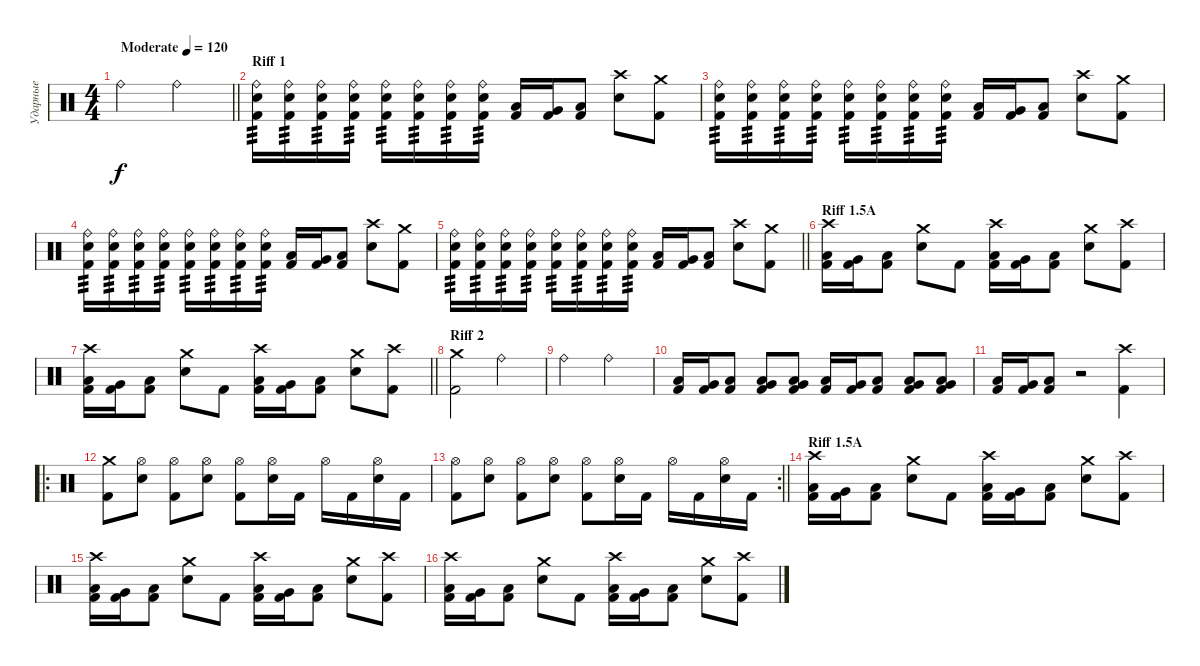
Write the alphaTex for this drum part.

\track ("Ударные" "Ударные") {instrument percussion}
\staff {score}
\articulation defaults
\ts (4 4)
\tempo (120 "Moderate")
\clef neutral
\barLineRight lightlight
\ks c "Ride (bell)".2{dy f} "Ride (bell)".2
|
\section ("" "Riff 1")
("Ride (bell)" "Electric Snare (hit)" "Kick (hit) 2").16{tp 3} ("Ride (bell)" "Electric Snare (hit)" "Kick (hit) 2").16{tp 3} ("Ride (bell)" "Electric Snare (hit)" "Kick (hit) 2").16{tp 3} ("Ride (bell)" "Electric Snare (hit)" "Kick (hit) 2").16{tp 3} ("Ride (bell)" "Electric Snare (hit)" "Kick (hit) 2").16{tp 3} ("Ride (bell)" "Electric Snare (hit)" "Kick (hit) 2").16{tp 3} ("Ride (bell)" "Electric Snare (hit)" "Kick (hit) 2").16{tp 3} ("Ride (bell)" "Electric Snare (hit)" "Kick (hit) 2").16{tp 3} ("Low Tom (hit)" "Kick (hit) 2").16 ("Very Low Tom (hit)" "Kick (hit) 2").16 ("Low Tom (hit)" "Kick (hit) 2").8 ("Crash high (hit)" "Electric Snare (hit)").8 ("Crash medium (hit)" "Kick (hit) 2").8 |
("Ride (bell)" "Electric Snare (hit)" "Kick (hit) 2").16{tp 3} ("Ride (bell)" "Electric Snare (hit)" "Kick (hit) 2").16{tp 3} ("Ride (bell)" "Electric Snare (hit)" "Kick (hit) 2").16{tp 3} ("Ride (bell)" "Electric Snare (hit)" "Kick (hit) 2").16{tp 3} ("Ride (bell)" "Electric Snare (hit)" "Kick (hit) 2").16{tp 3} ("Ride (bell)" "Electric Snare (hit)" "Kick (hit) 2").16{tp 3} ("Ride (bell)" "Electric Snare (hit)" "Kick (hit) 2").16{tp 3} ("Ride (bell)" "Electric Snare (hit)" "Kick (hit) 2").16{tp 3} ("Low Tom (hit)" "Kick (hit) 2").16 ("Very Low Tom (hit)" "Kick (hit) 2").16 ("Low Tom (hit)" "Kick (hit) 2").8 ("Crash high (hit)" "Electric Snare (hit)").8 ("Crash medium (hit)" "Kick (hit) 2").8 |
("Ride (bell)" "Electric Snare (hit)" "Kick (hit) 2").16{tp 3} ("Ride (bell)" "Electric Snare (hit)" "Kick (hit) 2").16{tp 3} ("Ride (bell)" "Electric Snare (hit)" "Kick (hit) 2").16{tp 3} ("Ride (bell)" "Electric Snare (hit)" "Kick (hit) 2").16{tp 3} ("Ride (bell)" "Electric Snare (hit)" "Kick (hit) 2").16{tp 3} ("Ride (bell)" "Electric Snare (hit)" "Kick (hit) 2").16{tp 3} ("Ride (bell)" "Electric Snare (hit)" "Kick (hit) 2").16{tp 3} ("Ride (bell)" "Electric Snare (hit)" "Kick (hit) 2").16{tp 3} ("Low Tom (hit)" "Kick (hit) 2").16 ("Very Low Tom (hit)" "Kick (hit) 2").16 ("Low Tom (hit)" "Kick (hit) 2").8 ("Crash high (hit)" "Electric Snare (hit)").8 ("Crash medium (hit)" "Kick (hit) 2").8 |
\barLineRight lightlight
("Ride (bell)" "Electric Snare (hit)" "Kick (hit) 2").16{tp 3} ("Ride (bell)" "Electric Snare (hit)" "Kick (hit) 2").16{tp 3} ("Ride (bell)" "Electric Snare (hit)" "Kick (hit) 2").16{tp 3} ("Ride (bell)" "Electric Snare (hit)" "Kick (hit) 2").16{tp 3} ("Ride (bell)" "Electric Snare (hit)" "Kick (hit) 2").16{tp 3} ("Ride (bell)" "Electric Snare (hit)" "Kick (hit) 2").16{tp 3} ("Ride (bell)" "Electric Snare (hit)" "Kick (hit) 2").16{tp 3} ("Ride (bell)" "Electric Snare (hit)" "Kick (hit) 2").16{tp 3} ("Low Tom (hit)" "Kick (hit) 2").16 ("Very Low Tom (hit)" "Kick (hit) 2").16 ("Low Tom (hit)" "Kick (hit) 2").8 ("Crash high (hit)" "Electric Snare (hit)").8 ("Crash medium (hit)" "Kick (hit) 2").8 |
\section ("" "Riff 1.5A")
("Crash high (hit)" "Low Tom (hit)" "Kick (hit) 2").16 ("Very Low Tom (hit)" "Kick (hit) 2").16 ("Low Tom (hit)" "Kick (hit) 2").8 ("Crash medium (hit)" "Electric Snare (hit)").8 "Kick (hit) 2".8 ("Crash high (hit)" "Low Tom (hit)" "Kick (hit) 2").16 ("Very Low Tom (hit)" "Kick (hit) 2").16 ("Low Tom (hit)" "Kick (hit) 2").8 ("Crash medium (hit)" "Electric Snare (hit)").8 ("Crash high (hit)" "Kick (hit) 2").8 |
\barLineRight lightlight
("Crash high (hit)" "Low Tom (hit)" "Kick (hit) 2").16 ("Very Low Tom (hit)" "Kick (hit) 2").16 ("Low Tom (hit)" "Kick (hit) 2").8 ("Crash medium (hit)" "Electric Snare (hit)").8 "Kick (hit) 2".8 ("Crash high (hit)" "Low Tom (hit)" "Kick (hit) 2").16 ("Very Low Tom (hit)" "Kick (hit) 2").16 ("Low Tom (hit)" "Kick (hit) 2").8 ("Crash medium (hit)" "Electric Snare (hit)").8 ("Crash high (hit)" "Kick (hit) 2").8 |
\section ("" "Riff 2")
("Crash medium (hit)" "Kick (hit) 2").2 "Ride (bell)".2 |
"Ride (bell)".2 "Ride (bell)".2 |
("Low Tom (hit)" "Kick (hit) 2").16 ("Very Low Tom (hit)" "Kick (hit) 2").16 ("Low Tom (hit)" "Kick (hit) 2").8 ("Very Low Tom (hit)" "Low Floor Tom (hit)" "Kick (hit) 2").8 ("Very Low Tom (hit)" "Low Floor Tom (hit)" "Kick (hit) 2").8 ("Low Tom (hit)" "Kick (hit) 2").16 ("Very Low Tom (hit)" "Kick (hit) 2").16 ("Low Tom (hit)" "Kick (hit) 2").8 ("Very Low Tom (hit)" "Low Floor Tom (hit)" "Kick (hit) 2").8 ("Very Low Tom (hit)" "Low Floor Tom (hit)" "Kick (hit) 2").8 |
("Low Tom (hit)" "Kick (hit) 2").16 ("Very Low Tom (hit)" "Kick (hit) 2").16 ("Low Tom (hit)" "Kick (hit) 2").8 r.2 ("Crash high (hit)" "Kick (hit) 2").4 |
\ro
("Crash medium (hit)" "Kick (hit) 2").8 ("Hi-Hat (open)" "Electric Snare (hit)").8 ("Hi-Hat (open)" "Kick (hit) 2").8 ("Hi-Hat (open)" "Electric Snare (hit)").8 ("Hi-Hat (open)" "Kick (hit) 2").8 ("Hi-Hat (open)" "Electric Snare (hit)").16 "Kick (hit) 2".16 "Hi-Hat (open)".16 "Kick (hit) 2".16 ("Hi-Hat (open)" "Electric Snare (hit)").16 "Kick (hit) 2".16 |
\rc 2
\barLineRight lightlight
("Hi-Hat (open)" "Kick (hit) 2").8 ("Hi-Hat (open)" "Electric Snare (hit)").8 ("Hi-Hat (open)" "Kick (hit) 2").8 ("Hi-Hat (open)" "Electric Snare (hit)").8 ("Hi-Hat (open)" "Kick (hit) 2").8 ("Hi-Hat (open)" "Electric Snare (hit)").16 "Kick (hit) 2".16 "Hi-Hat (open)".16 "Kick (hit) 2".16 ("Hi-Hat (open)" "Electric Snare (hit)").16 "Kick (hit) 2".16 |
\section ("" "Riff 1.5A")
("Crash high (hit)" "Low Tom (hit)" "Kick (hit) 2").16 ("Very Low Tom (hit)" "Kick (hit) 2").16 ("Low Tom (hit)" "Kick (hit) 2").8 ("Crash medium (hit)" "Electric Snare (hit)").8 "Kick (hit) 2".8 ("Crash high (hit)" "Low Tom (hit)" "Kick (hit) 2").16 ("Very Low Tom (hit)" "Kick (hit) 2").16 ("Low Tom (hit)" "Kick (hit) 2").8 ("Crash medium (hit)" "Electric Snare (hit)").8 ("Crash high (hit)" "Kick (hit) 2").8 |
("Crash high (hit)" "Low Tom (hit)" "Kick (hit) 2").16 ("Very Low Tom (hit)" "Kick (hit) 2").16 ("Low Tom (hit)" "Kick (hit) 2").8 ("Crash medium (hit)" "Electric Snare (hit)").8 "Kick (hit) 2".8 ("Crash high (hit)" "Low Tom (hit)" "Kick (hit) 2").16 ("Very Low Tom (hit)" "Kick (hit) 2").16 ("Low Tom (hit)" "Kick (hit) 2").8 ("Crash medium (hit)" "Electric Snare (hit)").8 ("Crash high (hit)" "Kick (hit) 2").8 |
("Crash high (hit)" "Low Tom (hit)" "Kick (hit) 2").16 ("Very Low Tom (hit)" "Kick (hit) 2").16 ("Low Tom (hit)" "Kick (hit) 2").8 ("Crash medium (hit)" "Electric Snare (hit)").8 "Kick (hit) 2".8 ("Crash high (hit)" "Low Tom (hit)" "Kick (hit) 2").16 ("Very Low Tom (hit)" "Kick (hit) 2").16 ("Low Tom (hit)" "Kick (hit) 2").8 ("Crash medium (hit)" "Electric Snare (hit)").8 ("Crash high (hit)" "Kick (hit) 2").8
